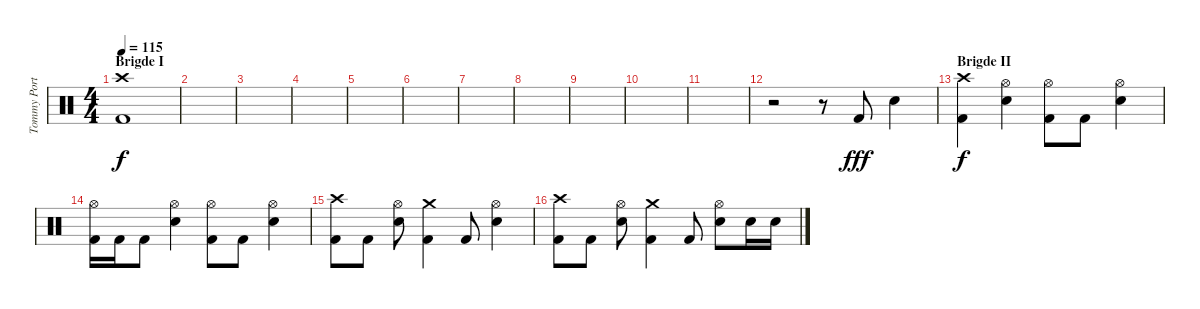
\track ("Tommy Portino - Drums" "Tommy Port") {instrument percussion}
\staff {score}
\articulation defaults
\ts (4 4)
\section ("" "Brigde I")
\tempo 115
\clef neutral
\ks c
("Crash high (hit)" "Kick (hit) 2").1{dy f} |
|
|
|
|
|
|
|
|
|
|
r.2 r.8 "Kick (hit) 2".8{dy fff} "Electric Snare (hit)".4 |
\section ("" "Brigde II")
("Crash high (hit)" "Kick (hit) 2").4{dy f} ("Hi-Hat (open)" "Electric Snare (hit)").4 ("Hi-Hat (open)" "Kick (hit) 2").8 "Kick (hit) 2".8 ("Hi-Hat (open)" "Electric Snare (hit)").4 |
("Hi-Hat (open)" "Kick (hit) 2").16 "Kick (hit) 2".16 "Kick (hit) 2".8 ("Hi-Hat (open)" "Electric Snare (hit)").4 ("Hi-Hat (open)" "Kick (hit) 2").8 "Kick (hit) 2".8 ("Hi-Hat (open)" "Electric Snare (hit)").4 |
("Crash high (hit)" "Kick (hit) 2").8 "Kick (hit) 2".8 ("Hi-Hat (open)" "Electric Snare (hit)").8 ("Crash medium (hit)" "Kick (hit) 2").4 "Kick (hit) 2".8 ("Hi-Hat (open)" "Electric Snare (hit)").4 |
("Crash high (hit)" "Kick (hit) 2").8 "Kick (hit) 2".8 ("Hi-Hat (open)" "Electric Snare (hit)").8 ("Crash medium (hit)" "Kick (hit) 2").4 "Kick (hit) 2".8 ("Hi-Hat (open)" "Electric Snare (hit)").8 "Electric Snare (hit)".16 "Electric Snare (hit)".16
